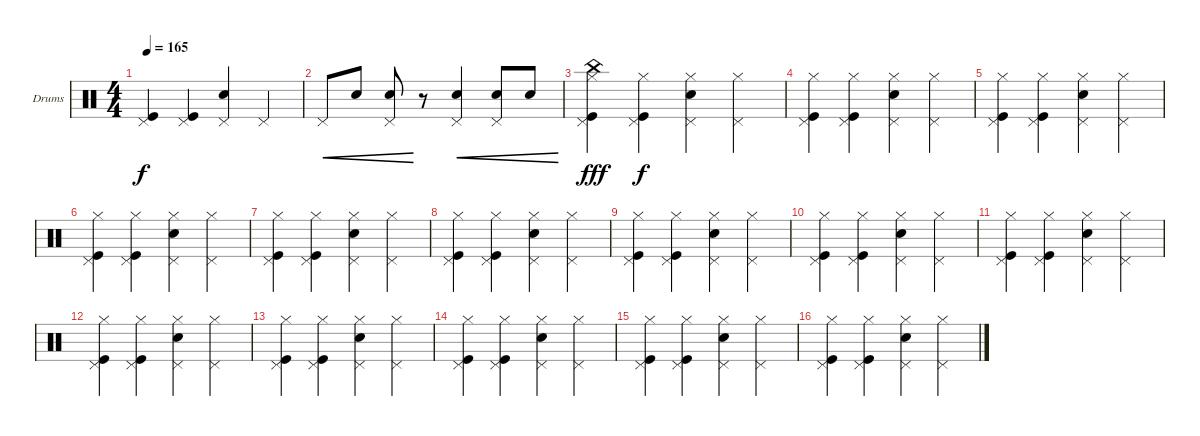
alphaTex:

\bracketExtendMode groupsimilarinstruments
\firstSystemTrackNameOrientation horizontal
\otherSystemsTrackNameOrientation horizontal
\track ("Drumkit" "Drums") {instrument percussion}
\staff {score}
\articulation defaults
\ts (4 4)
\tempo 165
\clef neutral
\ks c
("Pedal Hi-Hat (hit)" "Kick (hit)").4{dy f} ("Pedal Hi-Hat (hit)" "Kick (hit)").4 ("Pedal Hi-Hat (hit)" "Snare (hit) 2").4 "Pedal Hi-Hat (hit)".4 |
"Pedal Hi-Hat (hit)".8{cre} "Snare (hit) 2".8{cre} ("Pedal Hi-Hat (hit)" "Snare (hit) 2").8{cre} r.8 ("Snare (hit) 2" "Pedal Hi-Hat (hit)").4{cre} ("Snare (hit) 2" "Pedal Hi-Hat (hit)").8{cre} "Snare (hit) 2".8{cre} |
("Kick (hit)" "Pedal Hi-Hat (hit)" "China (hit)" "Hi-Hat (closed)").4{dy fff} ("Pedal Hi-Hat (hit)" "Kick (hit)" "Hi-Hat (closed)").4{dy f} ("Pedal Hi-Hat (hit)" "Snare (hit) 2" "Hi-Hat (closed)").4 ("Pedal Hi-Hat (hit)" "Hi-Hat (closed)").4 |
("Pedal Hi-Hat (hit)" "Kick (hit)" "Hi-Hat (closed)").4 ("Pedal Hi-Hat (hit)" "Kick (hit)" "Hi-Hat (closed)").4 ("Pedal Hi-Hat (hit)" "Snare (hit) 2" "Hi-Hat (closed)").4 ("Pedal Hi-Hat (hit)" "Hi-Hat (closed)").4 |
("Pedal Hi-Hat (hit)" "Kick (hit)" "Hi-Hat (closed)").4 ("Pedal Hi-Hat (hit)" "Kick (hit)" "Hi-Hat (closed)").4 ("Pedal Hi-Hat (hit)" "Snare (hit) 2" "Hi-Hat (closed)").4 ("Pedal Hi-Hat (hit)" "Hi-Hat (closed)").4 |
("Pedal Hi-Hat (hit)" "Kick (hit)" "Hi-Hat (closed)").4 ("Pedal Hi-Hat (hit)" "Kick (hit)" "Hi-Hat (closed)").4 ("Pedal Hi-Hat (hit)" "Snare (hit) 2" "Hi-Hat (closed)").4 ("Pedal Hi-Hat (hit)" "Hi-Hat (closed)").4 |
("Pedal Hi-Hat (hit)" "Kick (hit)" "Hi-Hat (closed)").4 ("Pedal Hi-Hat (hit)" "Kick (hit)" "Hi-Hat (closed)").4 ("Pedal Hi-Hat (hit)" "Snare (hit) 2" "Hi-Hat (closed)").4 ("Pedal Hi-Hat (hit)" "Hi-Hat (closed)").4 |
("Pedal Hi-Hat (hit)" "Kick (hit)" "Hi-Hat (closed)").4 ("Pedal Hi-Hat (hit)" "Kick (hit)" "Hi-Hat (closed)").4 ("Pedal Hi-Hat (hit)" "Snare (hit) 2" "Hi-Hat (closed)").4 ("Pedal Hi-Hat (hit)" "Hi-Hat (closed)").4 |
("Pedal Hi-Hat (hit)" "Kick (hit)" "Hi-Hat (closed)").4 ("Pedal Hi-Hat (hit)" "Kick (hit)" "Hi-Hat (closed)").4 ("Pedal Hi-Hat (hit)" "Snare (hit) 2" "Hi-Hat (closed)").4 ("Pedal Hi-Hat (hit)" "Hi-Hat (closed)").4 |
("Pedal Hi-Hat (hit)" "Kick (hit)" "Hi-Hat (closed)").4 ("Pedal Hi-Hat (hit)" "Kick (hit)" "Hi-Hat (closed)").4 ("Pedal Hi-Hat (hit)" "Snare (hit) 2" "Hi-Hat (closed)").4 ("Pedal Hi-Hat (hit)" "Hi-Hat (closed)").4 |
("Pedal Hi-Hat (hit)" "Kick (hit)" "Hi-Hat (closed)").4 ("Pedal Hi-Hat (hit)" "Kick (hit)" "Hi-Hat (closed)").4 ("Pedal Hi-Hat (hit)" "Snare (hit) 2" "Hi-Hat (closed)").4 ("Pedal Hi-Hat (hit)" "Hi-Hat (closed)").4 |
("Pedal Hi-Hat (hit)" "Kick (hit)" "Hi-Hat (closed)").4 ("Pedal Hi-Hat (hit)" "Kick (hit)" "Hi-Hat (closed)").4 ("Pedal Hi-Hat (hit)" "Snare (hit) 2" "Hi-Hat (closed)").4 ("Pedal Hi-Hat (hit)" "Hi-Hat (closed)").4 |
("Pedal Hi-Hat (hit)" "Kick (hit)" "Hi-Hat (closed)").4 ("Pedal Hi-Hat (hit)" "Kick (hit)" "Hi-Hat (closed)").4 ("Pedal Hi-Hat (hit)" "Snare (hit) 2" "Hi-Hat (closed)").4 ("Pedal Hi-Hat (hit)" "Hi-Hat (closed)").4 |
("Pedal Hi-Hat (hit)" "Kick (hit)" "Hi-Hat (closed)").4 ("Pedal Hi-Hat (hit)" "Kick (hit)" "Hi-Hat (closed)").4 ("Pedal Hi-Hat (hit)" "Snare (hit) 2" "Hi-Hat (closed)").4 ("Pedal Hi-Hat (hit)" "Hi-Hat (closed)").4 |
("Pedal Hi-Hat (hit)" "Kick (hit)" "Hi-Hat (closed)").4 ("Pedal Hi-Hat (hit)" "Kick (hit)" "Hi-Hat (closed)").4 ("Pedal Hi-Hat (hit)" "Snare (hit) 2" "Hi-Hat (closed)").4 ("Pedal Hi-Hat (hit)" "Hi-Hat (closed)").4 |
("Pedal Hi-Hat (hit)" "Kick (hit)" "Hi-Hat (closed)").4 ("Pedal Hi-Hat (hit)" "Kick (hit)" "Hi-Hat (closed)").4 ("Pedal Hi-Hat (hit)" "Snare (hit) 2" "Hi-Hat (closed)").4 ("Pedal Hi-Hat (hit)" "Hi-Hat (closed)").4
